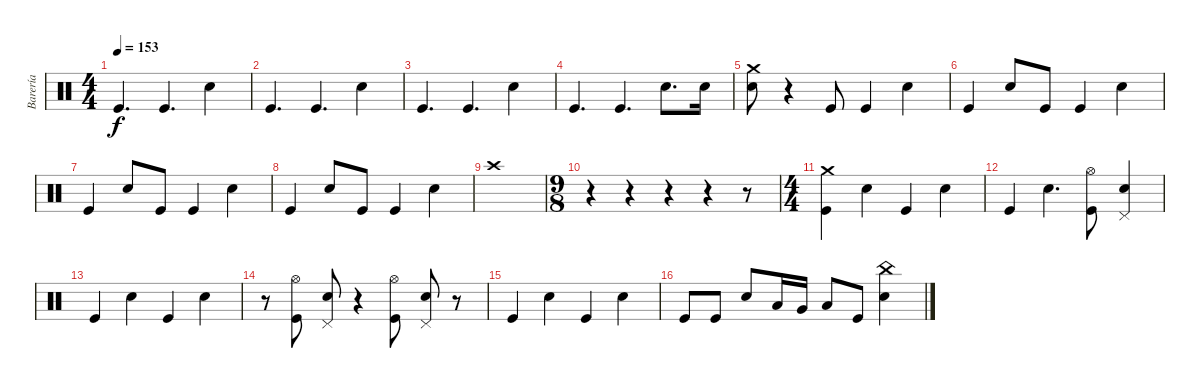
\track ("Barería" "Barería") {instrument percussion}
\staff {score}
\articulation defaults
\ts (4 4)
\tempo 153
\clef neutral
\ks c "Kick (hit)".4{d dy f} "Kick (hit)".4{d} "Snare (hit) 2".4
|
"Kick (hit)".4{d} "Kick (hit)".4{d} "Snare (hit) 2".4 |
"Kick (hit)".4{d} "Kick (hit)".4{d} "Snare (hit) 2".4 |
"Kick (hit)".4{d} "Kick (hit)".4{d} "Snare (hit) 2".8{d} "Snare (hit) 2".16 |
("Crash medium (hit)" "Snare (hit) 2").8 r.4 "Kick (hit)".8 "Kick (hit)".4 "Snare (hit) 2".4 |
"Kick (hit)".4 "Snare (hit) 2".8 "Kick (hit)".8 "Kick (hit)".4 "Snare (hit) 2".4 |
"Kick (hit)".4 "Snare (hit) 2".8 "Kick (hit)".8 "Kick (hit)".4 "Snare (hit) 2".4 |
"Kick (hit)".4 "Snare (hit) 2".8 "Kick (hit)".8 "Kick (hit)".4 "Snare (hit) 2".4 |
"Crash high (hit)".1 |
\ts (9 8)
r.4 r.4 r.4 r.4 r.8 |
\ts (4 4)
("Crash medium (hit)" "Kick (hit)").4 "Snare (hit) 2".4 "Kick (hit)".4 "Snare (hit) 2".4 |
"Kick (hit)".4 "Snare (hit) 2".4{d} ("Hi-Hat (open)" "Kick (hit)").8 ("Pedal Hi-Hat (hit)" "Snare (hit) 2").4 |
"Kick (hit)".4 "Snare (hit) 2".4 "Kick (hit)".4 "Snare (hit) 2".4 |
r.8 ("Hi-Hat (open)" "Kick (hit)").8 ("Pedal Hi-Hat (hit)" "Snare (hit) 2").8 r.4 ("Hi-Hat (open)" "Kick (hit)").8 ("Pedal Hi-Hat (hit)" "Snare (hit) 2").8 r.8 |
"Kick (hit)".4 "Snare (hit) 2".4 "Kick (hit)".4 "Snare (hit) 2".4 |
"Kick (hit)".8 "Kick (hit)".8 "Snare (hit) 2".8 "Low Tom (hit)".16 "Very Low Tom (hit)".16 "Low Floor Tom (hit)".8 "Kick (hit)".8 ("China (hit)" "Snare (hit) 2").4
